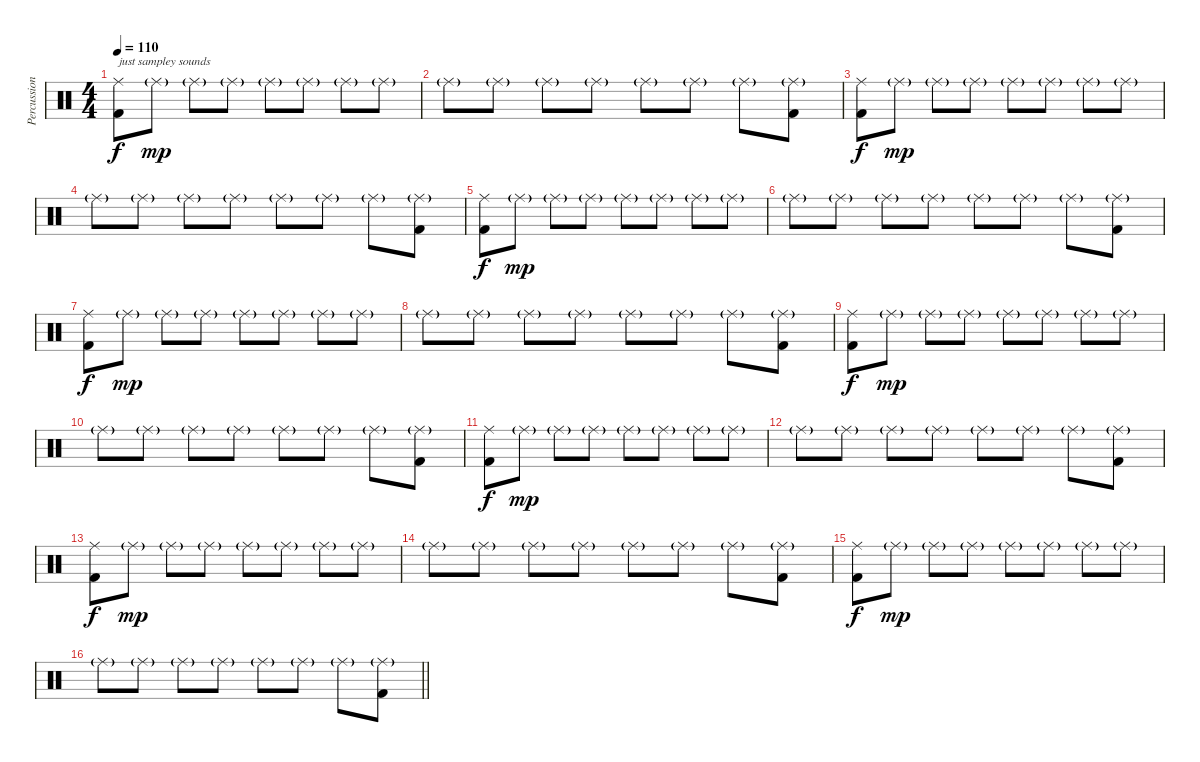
\track ("Percussion" "Percussion") {instrument percussion}
\staff {score}
\articulation defaults
\ts (4 4)
\tempo 110
\clef neutral
\ks c
("Ride (middle)" "Kick (hit) 2").8{txt "just sampley sounds" dy f} "Ride (middle)"{g}.8{dy mp} "Ride (middle)"{g}.8 "Ride (middle)"{g}.8 "Ride (middle)"{g}.8 "Ride (middle)"{g}.8 "Ride (middle)"{g}.8 "Ride (middle)"{g}.8 |
"Ride (middle)"{g}.8 "Ride (middle)"{g}.8 "Ride (middle)"{g}.8 "Ride (middle)"{g}.8 "Ride (middle)"{g}.8 "Ride (middle)"{g}.8 "Ride (middle)"{g}.8 ("Ride (middle)"{g} "Kick (hit) 2").8 |
("Ride (middle)" "Kick (hit) 2").8{dy f} "Ride (middle)"{g}.8{dy mp} "Ride (middle)"{g}.8 "Ride (middle)"{g}.8 "Ride (middle)"{g}.8 "Ride (middle)"{g}.8 "Ride (middle)"{g}.8 "Ride (middle)"{g}.8 |
"Ride (middle)"{g}.8 "Ride (middle)"{g}.8 "Ride (middle)"{g}.8 "Ride (middle)"{g}.8 "Ride (middle)"{g}.8 "Ride (middle)"{g}.8 "Ride (middle)"{g}.8 ("Ride (middle)"{g} "Kick (hit) 2").8 |
("Ride (middle)" "Kick (hit) 2").8{dy f} "Ride (middle)"{g}.8{dy mp} "Ride (middle)"{g}.8 "Ride (middle)"{g}.8 "Ride (middle)"{g}.8 "Ride (middle)"{g}.8 "Ride (middle)"{g}.8 "Ride (middle)"{g}.8 |
"Ride (middle)"{g}.8 "Ride (middle)"{g}.8 "Ride (middle)"{g}.8 "Ride (middle)"{g}.8 "Ride (middle)"{g}.8 "Ride (middle)"{g}.8 "Ride (middle)"{g}.8 ("Ride (middle)"{g} "Kick (hit) 2").8 |
("Ride (middle)" "Kick (hit) 2").8{dy f} "Ride (middle)"{g}.8{dy mp} "Ride (middle)"{g}.8 "Ride (middle)"{g}.8 "Ride (middle)"{g}.8 "Ride (middle)"{g}.8 "Ride (middle)"{g}.8 "Ride (middle)"{g}.8 |
"Ride (middle)"{g}.8 "Ride (middle)"{g}.8 "Ride (middle)"{g}.8 "Ride (middle)"{g}.8 "Ride (middle)"{g}.8 "Ride (middle)"{g}.8 "Ride (middle)"{g}.8 ("Ride (middle)"{g} "Kick (hit) 2").8 |
("Ride (middle)" "Kick (hit) 2").8{dy f} "Ride (middle)"{g}.8{dy mp} "Ride (middle)"{g}.8 "Ride (middle)"{g}.8 "Ride (middle)"{g}.8 "Ride (middle)"{g}.8 "Ride (middle)"{g}.8 "Ride (middle)"{g}.8 |
"Ride (middle)"{g}.8 "Ride (middle)"{g}.8 "Ride (middle)"{g}.8 "Ride (middle)"{g}.8 "Ride (middle)"{g}.8 "Ride (middle)"{g}.8 "Ride (middle)"{g}.8 ("Ride (middle)"{g} "Kick (hit) 2").8 |
("Ride (middle)" "Kick (hit) 2").8{dy f} "Ride (middle)"{g}.8{dy mp} "Ride (middle)"{g}.8 "Ride (middle)"{g}.8 "Ride (middle)"{g}.8 "Ride (middle)"{g}.8 "Ride (middle)"{g}.8 "Ride (middle)"{g}.8 |
"Ride (middle)"{g}.8 "Ride (middle)"{g}.8 "Ride (middle)"{g}.8 "Ride (middle)"{g}.8 "Ride (middle)"{g}.8 "Ride (middle)"{g}.8 "Ride (middle)"{g}.8 ("Ride (middle)"{g} "Kick (hit) 2").8 |
("Ride (middle)" "Kick (hit) 2").8{dy f} "Ride (middle)"{g}.8{dy mp} "Ride (middle)"{g}.8 "Ride (middle)"{g}.8 "Ride (middle)"{g}.8 "Ride (middle)"{g}.8 "Ride (middle)"{g}.8 "Ride (middle)"{g}.8 |
"Ride (middle)"{g}.8 "Ride (middle)"{g}.8 "Ride (middle)"{g}.8 "Ride (middle)"{g}.8 "Ride (middle)"{g}.8 "Ride (middle)"{g}.8 "Ride (middle)"{g}.8 ("Ride (middle)"{g} "Kick (hit) 2").8 |
("Ride (middle)" "Kick (hit) 2").8{dy f} "Ride (middle)"{g}.8{dy mp} "Ride (middle)"{g}.8 "Ride (middle)"{g}.8 "Ride (middle)"{g}.8 "Ride (middle)"{g}.8 "Ride (middle)"{g}.8 "Ride (middle)"{g}.8 |
\barLineRight lightlight "Ride (middle)"{g}.8 "Ride (middle)"{g}.8 "Ride (middle)"{g}.8 "Ride (middle)"{g}.8 "Ride (middle)"{g}.8 "Ride (middle)"{g}.8 "Ride (middle)"{g}.8
("Ride (middle)"{g} "Kick (hit) 2").8
